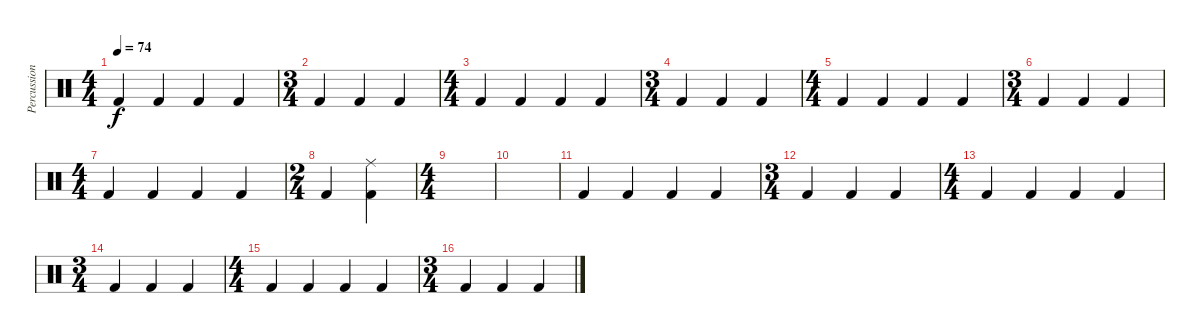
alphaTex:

\track ("Percussion" "Percussion") {instrument percussion}
\staff {score}
\articulation defaults
\ts (4 4)
\tempo 74
\clef neutral
\ks c "Kick (hit) 2".4{dy f} "Kick (hit) 2".4 "Kick (hit) 2".4 "Kick (hit) 2".4
|
\ts (3 4)
"Kick (hit) 2".4 "Kick (hit) 2".4 "Kick (hit) 2".4 |
\ts (4 4)
"Kick (hit) 2".4 "Kick (hit) 2".4 "Kick (hit) 2".4 "Kick (hit) 2".4 |
\ts (3 4)
"Kick (hit) 2".4 "Kick (hit) 2".4 "Kick (hit) 2".4 |
\ts (4 4)
"Kick (hit) 2".4 "Kick (hit) 2".4 "Kick (hit) 2".4 "Kick (hit) 2".4 |
\ts (3 4)
"Kick (hit) 2".4 "Kick (hit) 2".4 "Kick (hit) 2".4 |
\ts (4 4)
"Kick (hit) 2".4 "Kick (hit) 2".4 "Kick (hit) 2".4 "Kick (hit) 2".4 |
\ts (2 4)
"Kick (hit) 2".4 ("Ride (middle)" "Kick (hit) 2").4 |
\ts (4 4)
|
|
"Kick (hit) 2".4 "Kick (hit) 2".4 "Kick (hit) 2".4 "Kick (hit) 2".4 |
\ts (3 4)
"Kick (hit) 2".4 "Kick (hit) 2".4 "Kick (hit) 2".4 |
\ts (4 4)
"Kick (hit) 2".4 "Kick (hit) 2".4 "Kick (hit) 2".4 "Kick (hit) 2".4 |
\ts (3 4)
"Kick (hit) 2".4 "Kick (hit) 2".4 "Kick (hit) 2".4 |
\ts (4 4)
"Kick (hit) 2".4 "Kick (hit) 2".4 "Kick (hit) 2".4 "Kick (hit) 2".4 |
\ts (3 4)
"Kick (hit) 2".4 "Kick (hit) 2".4 "Kick (hit) 2".4
